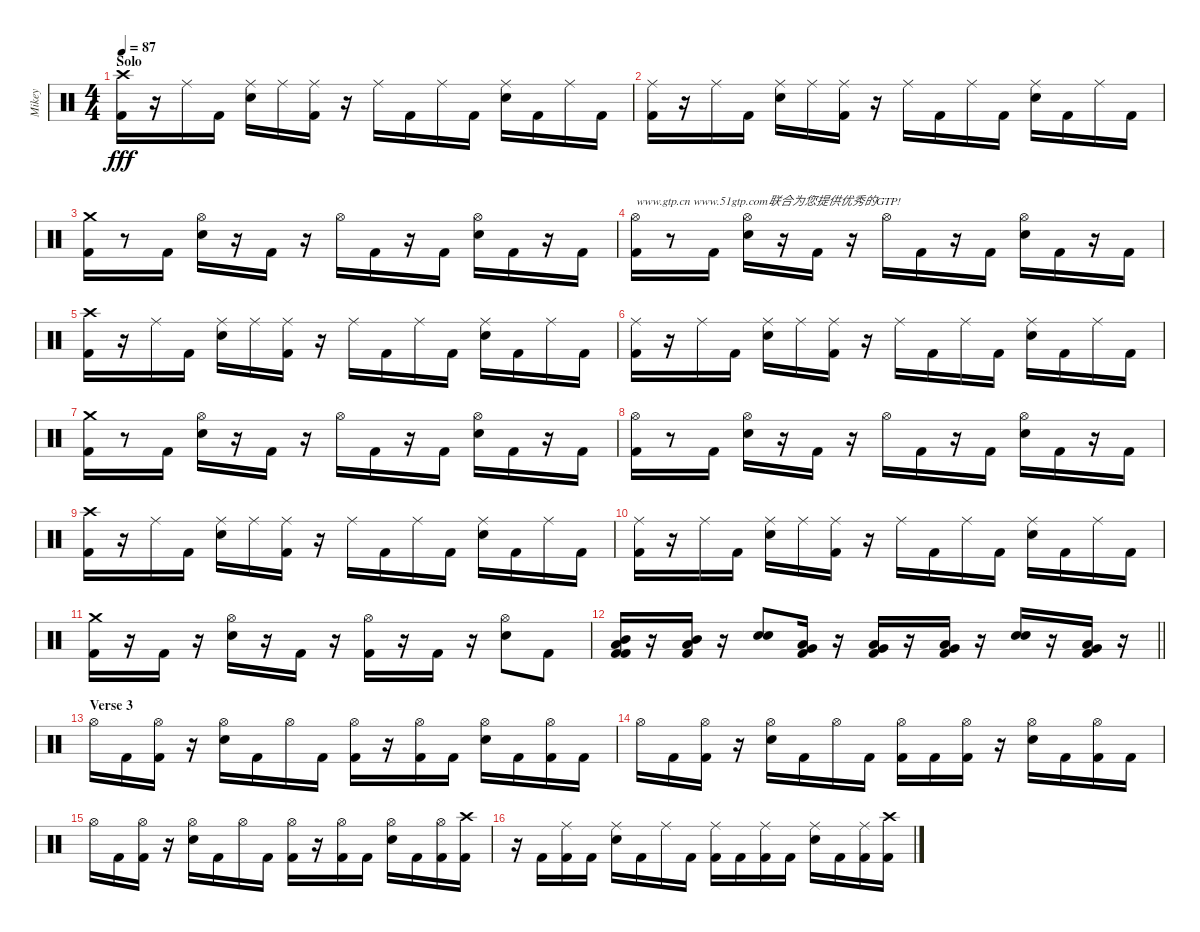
\track ("Mikey" "Mikey") {instrument percussion}
\staff {score}
\articulation defaults
\ts (4 4)
\section ("" "Solo")
\tempo 87
\clef neutral
\ks c
("Crash high (hit)" "Kick (hit) 2").16{dy fff} r.16 "Ride (middle)".16 "Kick (hit) 2".16 ("Electric Snare (hit)" "Ride (middle)").16 "Ride (middle)".16 ("Ride (middle)" "Kick (hit) 2").16 r.16 "Ride (middle)".16 "Kick (hit) 2".16 "Ride (middle)".16 "Kick (hit) 2".16 ("Ride (middle)" "Electric Snare (hit)").16 "Kick (hit) 2".16 "Ride (middle)".16 "Kick (hit) 2".16 |
("Ride (middle)" "Kick (hit) 2").16 r.16 "Ride (middle)".16 "Kick (hit) 2".16 ("Electric Snare (hit)" "Ride (middle)").16 "Ride (middle)".16 ("Ride (middle)" "Kick (hit) 2").16 r.16 "Ride (middle)".16 "Kick (hit) 2".16 "Ride (middle)".16 "Kick (hit) 2".16 ("Ride (middle)" "Electric Snare (hit)").16 "Kick (hit) 2".16 "Ride (middle)".16 "Kick (hit) 2".16 |
("Kick (hit) 2" "Crash medium (hit)").16 r.8 "Kick (hit) 2".16 ("Hi-Hat (open)" "Electric Snare (hit)").16 r.16 "Kick (hit) 2".16 r.16 "Hi-Hat (open)".16 "Kick (hit) 2".16 r.16 "Kick (hit) 2".16 ("Electric Snare (hit)" "Hi-Hat (open)").16 "Kick (hit) 2".16 r.16 "Kick (hit) 2".16 |
("Hi-Hat (open)" "Kick (hit) 2").16{txt "www.gtp.cn www.51gtp.com联合为您提供优秀的GTP!"} r.8 "Kick (hit) 2".16 ("Hi-Hat (open)" "Electric Snare (hit)").16 r.16 "Kick (hit) 2".16 r.16 "Hi-Hat (open)".16 "Kick (hit) 2".16 r.16 "Kick (hit) 2".16 ("Electric Snare (hit)" "Hi-Hat (open)").16 "Kick (hit) 2".16 r.16 "Kick (hit) 2".16 |
("Crash high (hit)" "Kick (hit) 2").16 r.16 "Ride (middle)".16 "Kick (hit) 2".16 ("Electric Snare (hit)" "Ride (middle)").16 "Ride (middle)".16 ("Ride (middle)" "Kick (hit) 2").16 r.16 "Ride (middle)".16 "Kick (hit) 2".16 "Ride (middle)".16 "Kick (hit) 2".16 ("Ride (middle)" "Electric Snare (hit)").16 "Kick (hit) 2".16 "Ride (middle)".16 "Kick (hit) 2".16 |
("Ride (middle)" "Kick (hit) 2").16 r.16 "Ride (middle)".16 "Kick (hit) 2".16 ("Electric Snare (hit)" "Ride (middle)").16 "Ride (middle)".16 ("Ride (middle)" "Kick (hit) 2").16 r.16 "Ride (middle)".16 "Kick (hit) 2".16 "Ride (middle)".16 "Kick (hit) 2".16 ("Ride (middle)" "Electric Snare (hit)").16 "Kick (hit) 2".16 "Ride (middle)".16 "Kick (hit) 2".16 |
("Kick (hit) 2" "Crash medium (hit)").16 r.8 "Kick (hit) 2".16 ("Hi-Hat (open)" "Electric Snare (hit)").16 r.16 "Kick (hit) 2".16 r.16 "Hi-Hat (open)".16 "Kick (hit) 2".16 r.16 "Kick (hit) 2".16 ("Electric Snare (hit)" "Hi-Hat (open)").16 "Kick (hit) 2".16 r.16 "Kick (hit) 2".16 |
("Hi-Hat (open)" "Kick (hit) 2").16 r.8 "Kick (hit) 2".16 ("Hi-Hat (open)" "Electric Snare (hit)").16 r.16 "Kick (hit) 2".16 r.16 "Hi-Hat (open)".16 "Kick (hit) 2".16 r.16 "Kick (hit) 2".16 ("Electric Snare (hit)" "Hi-Hat (open)").16 "Kick (hit) 2".16 r.16 "Kick (hit) 2".16 |
("Crash high (hit)" "Kick (hit) 2").16 r.16 "Ride (middle)".16 "Kick (hit) 2".16 ("Electric Snare (hit)" "Ride (middle)").16 "Ride (middle)".16 ("Ride (middle)" "Kick (hit) 2").16 r.16 "Ride (middle)".16 "Kick (hit) 2".16 "Ride (middle)".16 "Kick (hit) 2".16 ("Ride (middle)" "Electric Snare (hit)").16 "Kick (hit) 2".16 "Ride (middle)".16 "Kick (hit) 2".16 |
("Ride (middle)" "Kick (hit) 2").16 r.16 "Ride (middle)".16 "Kick (hit) 2".16 ("Electric Snare (hit)" "Ride (middle)").16 "Ride (middle)".16 ("Ride (middle)" "Kick (hit) 2").16 r.16 "Ride (middle)".16 "Kick (hit) 2".16 "Ride (middle)".16 "Kick (hit) 2".16 ("Ride (middle)" "Electric Snare (hit)").16 "Kick (hit) 2".16 "Ride (middle)".16 "Kick (hit) 2".16 |
("Kick (hit) 2" "Crash medium (hit)").16 r.16 "Kick (hit) 2".16 r.16 ("Hi-Hat (open)" "Electric Snare (hit)").16 r.16 "Kick (hit) 2".16 r.16 ("Kick (hit) 2" "Hi-Hat (open)").16 r.16 "Kick (hit) 2".16 r.16 ("Electric Snare (hit)" "Hi-Hat (open)").8 "Kick (hit) 2".8 |
\barLineRight lightlight
("Mid Tom (hit)" "Kick (hit) 2" "Kick (hit) 2" "Low Tom (hit)").16 r.16 ("Mid Tom (hit)" "Kick (hit) 2" "Low Tom (hit)").16 r.16 ("Electric Snare (hit)" "Electric Snare (hit)").8 ("Low Tom (hit)" "Kick (hit) 2" "Very Low Tom (hit)").16 r.16 ("Low Tom (hit)" "Kick (hit) 2" "Very Low Tom (hit)").16 r.16 ("Very Low Tom (hit)" "Kick (hit) 2" "Low Floor Tom (hit)").16 r.16 ("Electric Snare (hit)" "Electric Snare (hit)").16 r.16 ("Very Low Tom (hit)" "Kick (hit) 2" "Low Floor Tom (hit)").16 r.16 |
\section ("" "Verse 3")
"Hi-Hat (open)".16 "Kick (hit) 2".16 ("Kick (hit) 2" "Hi-Hat (open)").16 r.16 ("Electric Snare (hit)" "Hi-Hat (open)").16 "Kick (hit) 2".16 "Hi-Hat (open)".16 "Kick (hit) 2".16 ("Kick (hit) 2" "Hi-Hat (open)").16 r.16 ("Kick (hit) 2" "Hi-Hat (open)").16 "Kick (hit) 2".16 ("Electric Snare (hit)" "Hi-Hat (open)").16 "Kick (hit) 2".16 ("Kick (hit) 2" "Hi-Hat (open)").16 "Kick (hit) 2".16 |
"Hi-Hat (open)".16 "Kick (hit) 2".16 ("Kick (hit) 2" "Hi-Hat (open)").16 r.16 ("Electric Snare (hit)" "Hi-Hat (open)").16 "Kick (hit) 2".16 "Hi-Hat (open)".16 "Kick (hit) 2".16 ("Kick (hit) 2" "Hi-Hat (open)").16 "Kick (hit) 2".16 ("Kick (hit) 2" "Hi-Hat (open)").16 r.16 ("Electric Snare (hit)" "Hi-Hat (open)").16 "Kick (hit) 2".16 ("Kick (hit) 2" "Hi-Hat (open)").16 "Kick (hit) 2".16 |
"Hi-Hat (open)".16 "Kick (hit) 2".16 ("Kick (hit) 2" "Hi-Hat (open)").16 r.16 ("Electric Snare (hit)" "Hi-Hat (open)").16 "Kick (hit) 2".16 "Hi-Hat (open)".16 "Kick (hit) 2".16 ("Kick (hit) 2" "Hi-Hat (open)").16 r.16 ("Kick (hit) 2" "Hi-Hat (open)").16 "Kick (hit) 2".16 ("Electric Snare (hit)" "Hi-Hat (open)").16 "Kick (hit) 2".16 ("Kick (hit) 2" "Hi-Hat (open)").16 ("Kick (hit) 2" "Crash high (hit)").16 |
r.16 "Kick (hit) 2".16 ("Kick (hit) 2" "Ride (middle)").16 "Kick (hit) 2".16 ("Electric Snare (hit)" "Ride (middle)").16 "Kick (hit) 2".16 "Ride (middle)".16 "Kick (hit) 2".16 ("Kick (hit) 2" "Ride (middle)").16 "Kick (hit) 2".16 ("Ride (middle)" "Kick (hit) 2").16 "Kick (hit) 2".16 ("Electric Snare (hit)" "Ride (middle)").16 "Kick (hit) 2".16 ("Ride (middle)" "Kick (hit) 2").16 ("Crash high (hit)" "Kick (hit) 2").16
